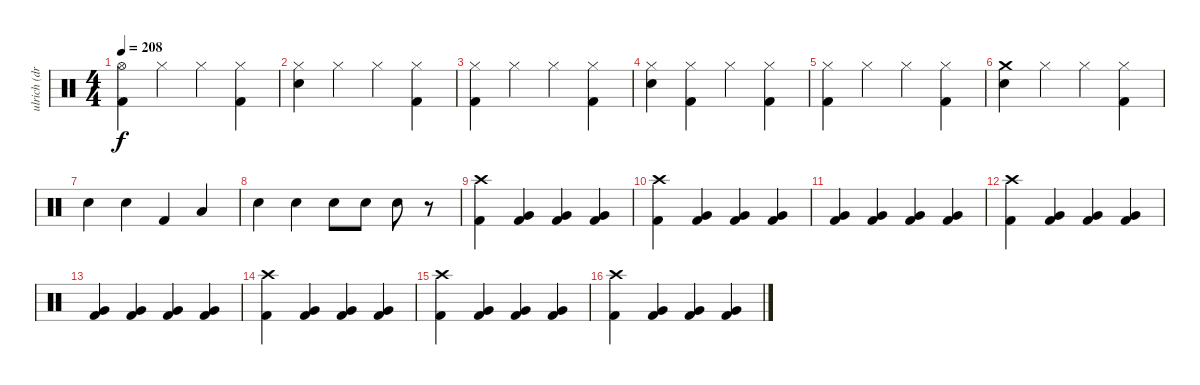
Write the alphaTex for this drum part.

\track ("ulrich (drums)" "ulrich (dr") {instrument percussion}
\staff {score}
\articulation defaults
\ts (4 4)
\tempo 208
\clef neutral
\ks c
("Hi-Hat (open)" "Kick (hit) 2").4{dy f} "Hi-Hat (closed)".4 "Hi-Hat (closed)".4 ("Hi-Hat (closed)" "Kick (hit) 2").4 |
("Hi-Hat (closed)" "Snare (hit) 2").4 "Hi-Hat (closed)".4 "Hi-Hat (closed)".4 ("Hi-Hat (closed)" "Kick (hit) 2").4 |
("Hi-Hat (closed)" "Kick (hit) 2").4 "Hi-Hat (closed)".4 "Hi-Hat (closed)".4 ("Hi-Hat (closed)" "Kick (hit) 2").4 |
("Hi-Hat (closed)" "Snare (hit) 2").4 ("Hi-Hat (closed)" "Kick (hit) 2").4 "Hi-Hat (closed)".4 ("Hi-Hat (closed)" "Kick (hit) 2").4 |
("Hi-Hat (closed)" "Kick (hit) 2").4 "Hi-Hat (closed)".4 "Hi-Hat (closed)".4 ("Hi-Hat (closed)" "Kick (hit) 2").4 |
("Crash medium (hit)" "Snare (hit) 2").4 "Hi-Hat (closed)".4 "Hi-Hat (closed)".4 ("Hi-Hat (closed)" "Kick (hit) 2").4 |
"Snare (hit) 2".4 "Snare (hit) 2".4 "Kick (hit) 2".4 "Low Tom (hit)".4 |
"Snare (hit) 2".4 "Snare (hit) 2".4 "Snare (hit) 2".8 "Snare (hit) 2".8 "Snare (hit) 2".8 r.8 |
("Crash high (hit)" "Kick (hit) 2").4 ("Very Low Tom (hit)" "Kick (hit) 2").4 ("Very Low Tom (hit)" "Kick (hit) 2").4 ("Very Low Tom (hit)" "Kick (hit) 2").4 |
("Crash high (hit)" "Kick (hit) 2").4 ("Very Low Tom (hit)" "Kick (hit) 2").4 ("Very Low Tom (hit)" "Kick (hit) 2").4 ("Very Low Tom (hit)" "Kick (hit) 2").4 |
("Very Low Tom (hit)" "Kick (hit) 2").4 ("Very Low Tom (hit)" "Kick (hit) 2").4 ("Very Low Tom (hit)" "Kick (hit) 2").4 ("Very Low Tom (hit)" "Kick (hit) 2").4 |
("Crash high (hit)" "Kick (hit) 2").4 ("Very Low Tom (hit)" "Kick (hit) 2").4 ("Very Low Tom (hit)" "Kick (hit) 2").4 ("Very Low Tom (hit)" "Kick (hit) 2").4 |
("Very Low Tom (hit)" "Kick (hit) 2").4 ("Very Low Tom (hit)" "Kick (hit) 2").4 ("Very Low Tom (hit)" "Kick (hit) 2").4 ("Very Low Tom (hit)" "Kick (hit) 2").4 |
("Crash high (hit)" "Kick (hit) 2").4 ("Very Low Tom (hit)" "Kick (hit) 2").4 ("Very Low Tom (hit)" "Kick (hit) 2").4 ("Very Low Tom (hit)" "Kick (hit) 2").4 |
("Crash high (hit)" "Kick (hit) 2").4 ("Very Low Tom (hit)" "Kick (hit) 2").4 ("Very Low Tom (hit)" "Kick (hit) 2").4 ("Very Low Tom (hit)" "Kick (hit) 2").4 |
("Crash high (hit)" "Kick (hit) 2").4 ("Very Low Tom (hit)" "Kick (hit) 2").4 ("Very Low Tom (hit)" "Kick (hit) 2").4 ("Very Low Tom (hit)" "Kick (hit) 2").4
